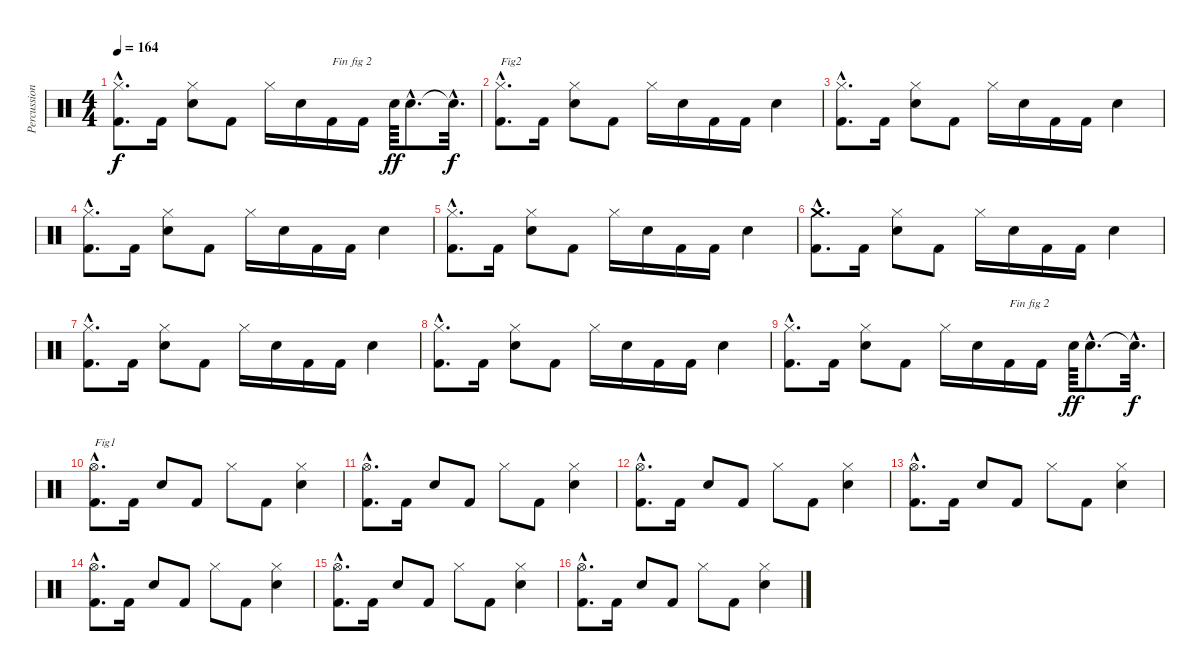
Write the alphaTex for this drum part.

\track ("Percussions" "Percussion") {instrument percussion}
\staff {score}
\articulation defaults
\ts (4 4)
\tempo 164
\clef neutral
\ks c
("Kick (hit) 2"{hac} "Hi-Hat (closed)"{hac}).8{d dy f} "Kick (hit) 2".16 ("Electric Snare (hit)" "Hi-Hat (closed)").8 "Kick (hit) 2".8 "Hi-Hat (closed)".16 "Electric Snare (hit)".16 "Kick (hit) 2".16{txt "Fin fig 2"} "Kick (hit) 2".16 "Electric Snare (hit)".64{dy ff} "Electric Snare (hit)"{hac}.8{d} "Snare (hit)"{hac t}.32{d dy f} |
("Kick (hit) 2"{hac} "Hi-Hat (closed)"{hac}).8{d txt "Fig2"} "Kick (hit) 2".16 ("Electric Snare (hit)" "Hi-Hat (closed)").8 "Kick (hit) 2".8 "Hi-Hat (closed)".16 "Electric Snare (hit)".16 "Kick (hit) 2".16 "Kick (hit) 2".16 "Electric Snare (hit)".4 |
("Kick (hit) 2"{hac} "Hi-Hat (closed)"{hac}).8{d} "Kick (hit) 2".16 ("Electric Snare (hit)" "Hi-Hat (closed)").8 "Kick (hit) 2".8 "Hi-Hat (closed)".16 "Electric Snare (hit)".16 "Kick (hit) 2".16 "Kick (hit) 2".16 "Electric Snare (hit)".4 |
("Kick (hit) 2"{hac} "Hi-Hat (closed)"{hac}).8{d} "Kick (hit) 2".16 ("Electric Snare (hit)" "Hi-Hat (closed)").8 "Kick (hit) 2".8 "Hi-Hat (closed)".16 "Electric Snare (hit)".16 "Kick (hit) 2".16 "Kick (hit) 2".16 "Electric Snare (hit)".4 |
("Kick (hit) 2"{hac} "Hi-Hat (closed)"{hac}).8{d} "Kick (hit) 2".16 ("Electric Snare (hit)" "Hi-Hat (closed)").8 "Kick (hit) 2".8 "Hi-Hat (closed)".16 "Electric Snare (hit)".16 "Kick (hit) 2".16 "Kick (hit) 2".16 "Electric Snare (hit)".4 |
("Kick (hit) 2"{hac} "Crash medium (hit)"{hac}).8{d} "Kick (hit) 2".16 ("Electric Snare (hit)" "Hi-Hat (closed)").8 "Kick (hit) 2".8 "Hi-Hat (closed)".16 "Electric Snare (hit)".16 "Kick (hit) 2".16 "Kick (hit) 2".16 "Electric Snare (hit)".4 |
("Kick (hit) 2"{hac} "Hi-Hat (closed)"{hac}).8{d} "Kick (hit) 2".16 ("Electric Snare (hit)" "Hi-Hat (closed)").8 "Kick (hit) 2".8 "Hi-Hat (closed)".16 "Electric Snare (hit)".16 "Kick (hit) 2".16 "Kick (hit) 2".16 "Electric Snare (hit)".4 |
("Kick (hit) 2"{hac} "Hi-Hat (closed)"{hac}).8{d} "Kick (hit) 2".16 ("Electric Snare (hit)" "Hi-Hat (closed)").8 "Kick (hit) 2".8 "Hi-Hat (closed)".16 "Electric Snare (hit)".16 "Kick (hit) 2".16 "Kick (hit) 2".16 "Electric Snare (hit)".4 |
("Kick (hit) 2"{hac} "Hi-Hat (closed)"{hac}).8{d} "Kick (hit) 2".16 ("Electric Snare (hit)" "Hi-Hat (closed)").8 "Kick (hit) 2".8 "Hi-Hat (closed)".16 "Electric Snare (hit)".16 "Kick (hit) 2".16{txt "Fin fig 2"} "Kick (hit) 2".16 "Electric Snare (hit)".64{dy ff} "Electric Snare (hit)"{hac}.8{d} "Snare (hit)"{hac t}.32{d dy f} |
("Kick (hit) 2"{hac} "Hi-Hat (open)"{hac}).8{d txt "Fig1"} "Kick (hit) 2".16 "Electric Snare (hit)".8 "Kick (hit) 2".8 "Hi-Hat (closed)".8 "Kick (hit) 2".8 ("Electric Snare (hit)" "Hi-Hat (closed)").4 |
("Kick (hit) 2"{hac} "Hi-Hat (open)"{hac}).8{d} "Kick (hit) 2".16 "Electric Snare (hit)".8 "Kick (hit) 2".8 "Hi-Hat (closed)".8 "Kick (hit) 2".8 ("Electric Snare (hit)" "Hi-Hat (closed)").4 |
("Kick (hit) 2"{hac} "Hi-Hat (open)"{hac}).8{d} "Kick (hit) 2".16 "Electric Snare (hit)".8 "Kick (hit) 2".8 "Hi-Hat (closed)".8 "Kick (hit) 2".8 ("Electric Snare (hit)" "Hi-Hat (closed)").4 |
("Kick (hit) 2"{hac} "Hi-Hat (open)"{hac}).8{d} "Kick (hit) 2".16 "Electric Snare (hit)".8 "Kick (hit) 2".8 "Hi-Hat (closed)".8 "Kick (hit) 2".8 ("Electric Snare (hit)" "Hi-Hat (closed)").4 |
("Kick (hit) 2"{hac} "Hi-Hat (open)"{hac}).8{d} "Kick (hit) 2".16 "Electric Snare (hit)".8 "Kick (hit) 2".8 "Hi-Hat (closed)".8 "Kick (hit) 2".8 ("Electric Snare (hit)" "Hi-Hat (closed)").4 |
("Kick (hit) 2"{hac} "Hi-Hat (open)"{hac}).8{d} "Kick (hit) 2".16 "Electric Snare (hit)".8 "Kick (hit) 2".8 "Hi-Hat (closed)".8 "Kick (hit) 2".8 ("Electric Snare (hit)" "Hi-Hat (closed)").4 |
("Kick (hit) 2"{hac} "Hi-Hat (open)"{hac}).8{d} "Kick (hit) 2".16 "Electric Snare (hit)".8 "Kick (hit) 2".8 "Hi-Hat (closed)".8 "Kick (hit) 2".8 ("Electric Snare (hit)" "Hi-Hat (closed)").4
